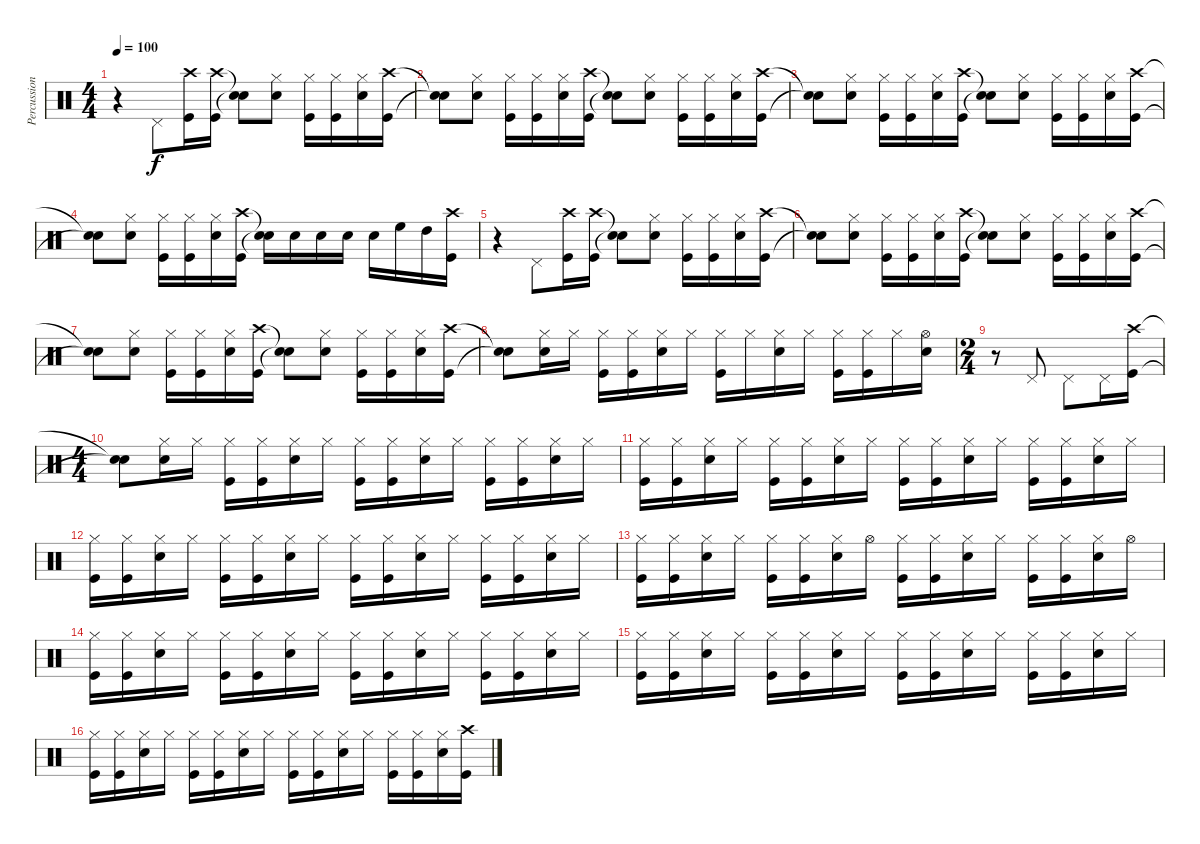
\track ("Percussions" "Percussion") {instrument percussion}
\staff {score}
\articulation defaults
\ts (4 4)
\tempo 100
\clef neutral
\ks c
r.4{dy f} "Pedal Hi-Hat (hit)".8 ("Crash high (hit)" "Kick (hit)").16 ("Crash high (hit)" "Kick (hit)").16 ("Snare (hit)"{t} "Snare (hit)"{t}).8 ("Hi-Hat (closed)" "Snare (hit) 2").8 ("Hi-Hat (closed)" "Kick (hit)").16 ("Hi-Hat (closed)" "Kick (hit)").16 ("Hi-Hat (closed)" "Snare (hit) 2").16 ("Crash high (hit)" "Kick (hit)").16 |
("Snare (hit)"{t} "Snare (hit)"{t}).8 ("Hi-Hat (closed)" "Snare (hit) 2").8 ("Hi-Hat (closed)" "Kick (hit)").16 ("Hi-Hat (closed)" "Kick (hit)").16 ("Hi-Hat (closed)" "Snare (hit) 2").16 ("Crash high (hit)" "Kick (hit)").16 ("Snare (hit)"{t} "Snare (hit)"{t}).8 ("Hi-Hat (closed)" "Snare (hit) 2").8 ("Hi-Hat (closed)" "Kick (hit)").16 ("Hi-Hat (closed)" "Kick (hit)").16 ("Hi-Hat (closed)" "Snare (hit) 2").16 ("Crash high (hit)" "Kick (hit)").16 |
("Snare (hit)"{t} "Snare (hit)"{t}).8 ("Hi-Hat (closed)" "Snare (hit) 2").8 ("Hi-Hat (closed)" "Kick (hit)").16 ("Hi-Hat (closed)" "Kick (hit)").16 ("Hi-Hat (closed)" "Snare (hit) 2").16 ("Crash high (hit)" "Kick (hit)").16 ("Snare (hit)"{t} "Snare (hit)"{t}).8 ("Hi-Hat (closed)" "Snare (hit) 2").8 ("Hi-Hat (closed)" "Kick (hit)").16 ("Hi-Hat (closed)" "Kick (hit)").16 ("Hi-Hat (closed)" "Snare (hit) 2").16 ("Crash high (hit)" "Kick (hit)").16 |
("Snare (hit)"{t} "Snare (hit)"{t}).8 ("Hi-Hat (closed)" "Snare (hit) 2").8 ("Hi-Hat (closed)" "Kick (hit)").16 ("Hi-Hat (closed)" "Kick (hit)").16 ("Hi-Hat (closed)" "Snare (hit) 2").16 ("Crash high (hit)" "Kick (hit)").16 ("Snare (hit)"{t} "Snare (hit)"{t}).16 "Snare (hit) 2".16 "Snare (hit) 2".16 "Snare (hit) 2".16 "Snare (hit) 2".16 "High Floor Tom (hit)".16 "High Tom (hit)".16 ("Crash high (hit)" "Kick (hit)").16 |
r.4 "Pedal Hi-Hat (hit)".8 ("Crash high (hit)" "Kick (hit)").16 ("Crash high (hit)" "Kick (hit)").16 ("Snare (hit)"{t} "Snare (hit)"{t}).8 ("Hi-Hat (closed)" "Snare (hit) 2").8 ("Hi-Hat (closed)" "Kick (hit)").16 ("Hi-Hat (closed)" "Kick (hit)").16 ("Hi-Hat (closed)" "Snare (hit) 2").16 ("Crash high (hit)" "Kick (hit)").16 |
("Snare (hit)"{t} "Snare (hit)"{t}).8 ("Hi-Hat (closed)" "Snare (hit) 2").8 ("Hi-Hat (closed)" "Kick (hit)").16 ("Hi-Hat (closed)" "Kick (hit)").16 ("Hi-Hat (closed)" "Snare (hit) 2").16 ("Crash high (hit)" "Kick (hit)").16 ("Snare (hit)"{t} "Snare (hit)"{t}).8 ("Hi-Hat (closed)" "Snare (hit) 2").8 ("Hi-Hat (closed)" "Kick (hit)").16 ("Hi-Hat (closed)" "Kick (hit)").16 ("Hi-Hat (closed)" "Snare (hit) 2").16 ("Crash high (hit)" "Kick (hit)").16 |
("Snare (hit)"{t} "Snare (hit)"{t}).8 ("Hi-Hat (closed)" "Snare (hit) 2").8 ("Hi-Hat (closed)" "Kick (hit)").16 ("Hi-Hat (closed)" "Kick (hit)").16 ("Hi-Hat (closed)" "Snare (hit) 2").16 ("Crash high (hit)" "Kick (hit)").16 ("Snare (hit)"{t} "Snare (hit)"{t}).8 ("Hi-Hat (closed)" "Snare (hit) 2").8 ("Hi-Hat (closed)" "Kick (hit)").16 ("Hi-Hat (closed)" "Kick (hit)").16 ("Hi-Hat (closed)" "Snare (hit) 2").16 ("Crash high (hit)" "Kick (hit)").16 |
("Snare (hit)"{t} "Snare (hit)"{t}).8 ("Hi-Hat (closed)" "Snare (hit) 2").16 "Hi-Hat (closed)".16 ("Hi-Hat (closed)" "Kick (hit)").16 ("Hi-Hat (closed)" "Kick (hit)").16 ("Hi-Hat (closed)" "Snare (hit) 2").16 "Hi-Hat (closed)".16 ("Hi-Hat (closed)" "Kick (hit)").16 "Hi-Hat (closed)".16 ("Hi-Hat (closed)" "Snare (hit) 2").16 "Hi-Hat (closed)".16 ("Hi-Hat (closed)" "Kick (hit)").16 ("Hi-Hat (closed)" "Kick (hit)").16 "Hi-Hat (closed)".16 ("Hi-Hat (open)" "Snare (hit) 2").16 |
\ts (2 4)
r.8 "Pedal Hi-Hat (hit)".8 "Pedal Hi-Hat (hit)".8 "Pedal Hi-Hat (hit)".16 ("Crash high (hit)" "Kick (hit)").16 |
\ts (4 4)
("Snare (hit)"{t} "Snare (hit)"{t}).8 ("Hi-Hat (closed)" "Snare (hit) 2").16 "Hi-Hat (closed)".16 ("Hi-Hat (closed)" "Kick (hit)").16 ("Hi-Hat (closed)" "Kick (hit)").16 ("Hi-Hat (closed)" "Snare (hit) 2").16 "Hi-Hat (closed)".16 ("Hi-Hat (closed)" "Kick (hit)").16 ("Hi-Hat (closed)" "Kick (hit)").16 ("Hi-Hat (closed)" "Snare (hit) 2").16 "Hi-Hat (closed)".16 ("Hi-Hat (closed)" "Kick (hit)").16 ("Hi-Hat (closed)" "Kick (hit)").16 ("Hi-Hat (closed)" "Snare (hit) 2").16 "Hi-Hat (closed)".16 |
("Hi-Hat (closed)" "Kick (hit)").16 ("Hi-Hat (closed)" "Kick (hit)").16 ("Hi-Hat (closed)" "Snare (hit) 2").16 "Hi-Hat (closed)".16 ("Hi-Hat (closed)" "Kick (hit)").16 ("Hi-Hat (closed)" "Kick (hit)").16 ("Hi-Hat (closed)" "Snare (hit) 2").16 "Hi-Hat (closed)".16 ("Hi-Hat (closed)" "Kick (hit)").16 ("Hi-Hat (closed)" "Kick (hit)").16 ("Hi-Hat (closed)" "Snare (hit) 2").16 "Hi-Hat (closed)".16 ("Hi-Hat (closed)" "Kick (hit)").16 ("Hi-Hat (closed)" "Kick (hit)").16 ("Hi-Hat (closed)" "Snare (hit) 2").16 "Hi-Hat (closed)".16 |
("Hi-Hat (closed)" "Kick (hit)").16 ("Hi-Hat (closed)" "Kick (hit)").16 ("Hi-Hat (closed)" "Snare (hit) 2").16 "Hi-Hat (closed)".16 ("Hi-Hat (closed)" "Kick (hit)").16 ("Hi-Hat (closed)" "Kick (hit)").16 ("Hi-Hat (closed)" "Snare (hit) 2").16 "Hi-Hat (closed)".16 ("Hi-Hat (closed)" "Kick (hit)").16 ("Hi-Hat (closed)" "Kick (hit)").16 ("Hi-Hat (closed)" "Snare (hit) 2").16 "Hi-Hat (closed)".16 ("Hi-Hat (closed)" "Kick (hit)").16 ("Hi-Hat (closed)" "Kick (hit)").16 ("Hi-Hat (closed)" "Snare (hit) 2").16 "Hi-Hat (closed)".16 |
("Hi-Hat (closed)" "Kick (hit)").16 ("Hi-Hat (closed)" "Kick (hit)").16 ("Hi-Hat (closed)" "Snare (hit) 2").16 "Hi-Hat (closed)".16 ("Hi-Hat (closed)" "Kick (hit)").16 ("Hi-Hat (closed)" "Kick (hit)").16 ("Hi-Hat (closed)" "Snare (hit) 2").16 "Hi-Hat (open)".16 ("Hi-Hat (closed)" "Kick (hit)").16 ("Hi-Hat (closed)" "Kick (hit)").16 ("Hi-Hat (closed)" "Snare (hit) 2").16 "Hi-Hat (closed)".16 ("Hi-Hat (closed)" "Kick (hit)").16 ("Hi-Hat (closed)" "Kick (hit)").16 ("Hi-Hat (closed)" "Snare (hit) 2").16 "Hi-Hat (open)".16 |
("Hi-Hat (closed)" "Kick (hit)").16 ("Hi-Hat (closed)" "Kick (hit)").16 ("Hi-Hat (closed)" "Snare (hit) 2").16 "Hi-Hat (closed)".16 ("Hi-Hat (closed)" "Kick (hit)").16 ("Hi-Hat (closed)" "Kick (hit)").16 ("Hi-Hat (closed)" "Snare (hit) 2").16 "Hi-Hat (closed)".16 ("Hi-Hat (closed)" "Kick (hit)").16 ("Hi-Hat (closed)" "Kick (hit)").16 ("Hi-Hat (closed)" "Snare (hit) 2").16 "Hi-Hat (closed)".16 ("Hi-Hat (closed)" "Kick (hit)").16 ("Hi-Hat (closed)" "Kick (hit)").16 ("Hi-Hat (closed)" "Snare (hit) 2").16 "Hi-Hat (closed)".16 |
("Hi-Hat (closed)" "Kick (hit)").16 ("Hi-Hat (closed)" "Kick (hit)").16 ("Hi-Hat (closed)" "Snare (hit) 2").16 "Hi-Hat (closed)".16 ("Hi-Hat (closed)" "Kick (hit)").16 ("Hi-Hat (closed)" "Kick (hit)").16 ("Hi-Hat (closed)" "Snare (hit) 2").16 "Hi-Hat (closed)".16 ("Hi-Hat (closed)" "Kick (hit)").16 ("Hi-Hat (closed)" "Kick (hit)").16 ("Hi-Hat (closed)" "Snare (hit) 2").16 "Hi-Hat (closed)".16 ("Hi-Hat (closed)" "Kick (hit)").16 ("Hi-Hat (closed)" "Kick (hit)").16 ("Hi-Hat (closed)" "Snare (hit) 2").16 "Hi-Hat (closed)".16 |
("Hi-Hat (closed)" "Kick (hit)").16 ("Hi-Hat (closed)" "Kick (hit)").16 ("Hi-Hat (closed)" "Snare (hit) 2").16 "Hi-Hat (closed)".16 ("Hi-Hat (closed)" "Kick (hit)").16 ("Hi-Hat (closed)" "Kick (hit)").16 ("Hi-Hat (closed)" "Snare (hit) 2").16 "Hi-Hat (closed)".16 ("Hi-Hat (closed)" "Kick (hit)").16 ("Hi-Hat (closed)" "Kick (hit)").16 ("Hi-Hat (closed)" "Snare (hit) 2").16 "Hi-Hat (closed)".16 ("Hi-Hat (closed)" "Kick (hit)").16 ("Hi-Hat (closed)" "Kick (hit)").16 ("Hi-Hat (closed)" "Snare (hit) 2").16 ("Crash high (hit)" "Kick (hit)").16
